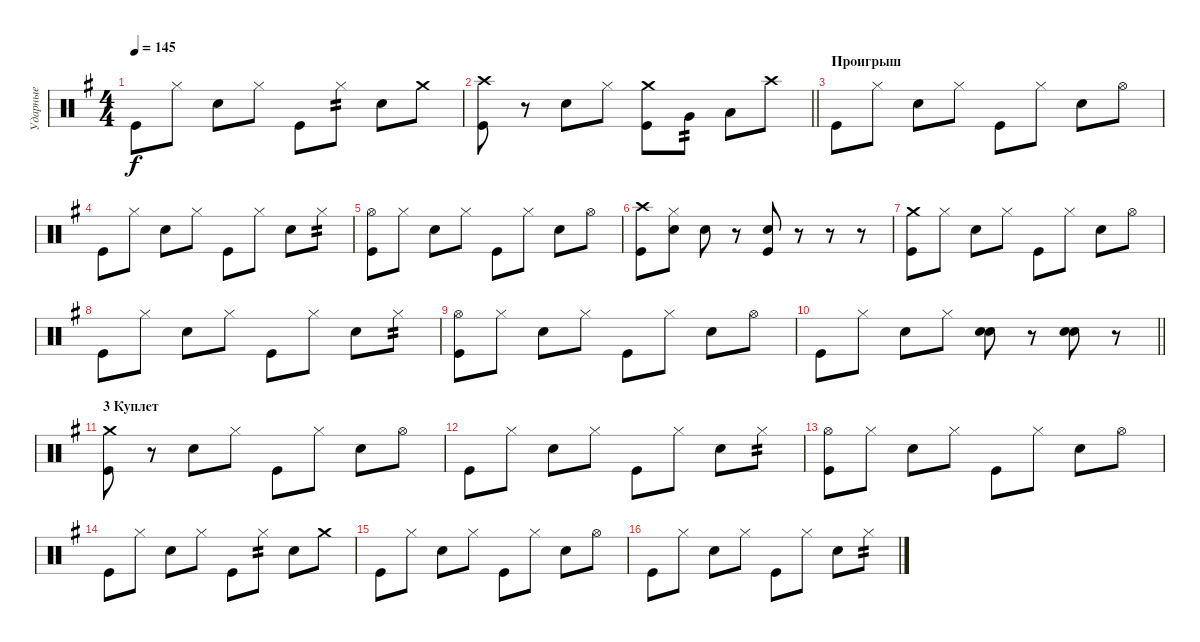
\track ("Ударные" "Ударные") {instrument percussion}
\staff {score}
\articulation defaults
\ts (4 4)
\tempo 145
\clef neutral
\ks eminor "Kick (hit)".8{dy f} "Hi-Hat (closed)".8 "Snare (hit) 2".8 "Hi-Hat (closed)".8 "Kick (hit)".8 "Hi-Hat (closed)".8{tp 2} "Snare (hit) 2".8 "Crash medium (hit)".8
|
\barLineRight lightlight
("Crash high (hit)" "Kick (hit)").8 r.8 "Snare (hit) 2".8 "Hi-Hat (closed)".8 ("Crash medium (hit)" "Kick (hit)").8 "Very Low Tom (hit)".8{tp 2} "Low Floor Tom (hit)".8 "Crash high (hit)".8 |
\section ("" "Проигрыш")
"Kick (hit)".8 "Hi-Hat (closed)".8 "Snare (hit) 2".8 "Hi-Hat (closed)".8 "Kick (hit)".8 "Hi-Hat (closed)".8 "Snare (hit) 2".8 "Hi-Hat (open)".8 |
"Kick (hit)".8 "Hi-Hat (closed)".8 "Snare (hit) 2".8 "Hi-Hat (closed)".8 "Kick (hit)".8 "Hi-Hat (closed)".8 "Snare (hit) 2".8 "Hi-Hat (closed)".8{tp 2} |
("Hi-Hat (open)" "Kick (hit)").8 "Hi-Hat (closed)".8 "Snare (hit) 2".8 "Hi-Hat (closed)".8 "Kick (hit)".8 "Hi-Hat (closed)".8 "Snare (hit) 2".8 "Hi-Hat (open)".8 |
("Crash high (hit)" "Kick (hit)").8 ("Hi-Hat (closed)" "Snare (hit) 2").8 "Snare (hit) 2".8 r.8 ("Hand Clap (hit)" "Kick (hit)").8 r.8 r.8 r.8 |
("Crash medium (hit)" "Kick (hit)").8 "Hi-Hat (closed)".8 "Snare (hit) 2".8 "Hi-Hat (closed)".8 "Kick (hit)".8 "Hi-Hat (closed)".8 "Snare (hit) 2".8 "Hi-Hat (open)".8 |
"Kick (hit)".8 "Hi-Hat (closed)".8 "Snare (hit) 2".8 "Hi-Hat (closed)".8 "Kick (hit)".8 "Hi-Hat (closed)".8 "Snare (hit) 2".8 "Hi-Hat (closed)".8{tp 2} |
("Hi-Hat (open)" "Kick (hit)").8 "Hi-Hat (closed)".8 "Snare (hit) 2".8 "Hi-Hat (closed)".8 "Kick (hit)".8 "Hi-Hat (closed)".8 "Snare (hit) 2".8 "Hi-Hat (open)".8 |
\barLineRight lightlight "Kick (hit)".8 "Hi-Hat (closed)".8 "Snare (hit) 2".8 "Hi-Hat (closed)".8
("Hand Clap (hit)" "Snare (hit) 2").8 r.8 ("Hand Clap (hit)" "Snare (hit) 2").8 r.8 |
\section ("" "3 Куплет")
("Crash medium (hit)" "Kick (hit)").8 r.8 "Snare (hit) 2".8 "Hi-Hat (closed)".8 "Kick (hit)".8 "Hi-Hat (closed)".8 "Snare (hit) 2".8 "Hi-Hat (open)".8 |
"Kick (hit)".8 "Hi-Hat (closed)".8 "Snare (hit) 2".8 "Hi-Hat (closed)".8 "Kick (hit)".8 "Hi-Hat (closed)".8 "Snare (hit) 2".8 "Hi-Hat (closed)".8{tp 2} |
("Hi-Hat (open)" "Kick (hit)").8 "Hi-Hat (closed)".8 "Snare (hit) 2".8 "Hi-Hat (closed)".8 "Kick (hit)".8 "Hi-Hat (closed)".8 "Snare (hit) 2".8 "Hi-Hat (open)".8 |
"Kick (hit)".8 "Hi-Hat (closed)".8 "Snare (hit) 2".8 "Hi-Hat (closed)".8 "Kick (hit)".8 "Hi-Hat (closed)".8{tp 2} "Snare (hit) 2".8 "Crash medium (hit)".8 |
"Kick (hit)".8 "Hi-Hat (closed)".8 "Snare (hit) 2".8 "Hi-Hat (closed)".8 "Kick (hit)".8 "Hi-Hat (closed)".8 "Snare (hit) 2".8 "Hi-Hat (open)".8 |
"Kick (hit)".8 "Hi-Hat (closed)".8 "Snare (hit) 2".8 "Hi-Hat (closed)".8 "Kick (hit)".8 "Hi-Hat (closed)".8 "Snare (hit) 2".8 "Hi-Hat (closed)".8{tp 2}
